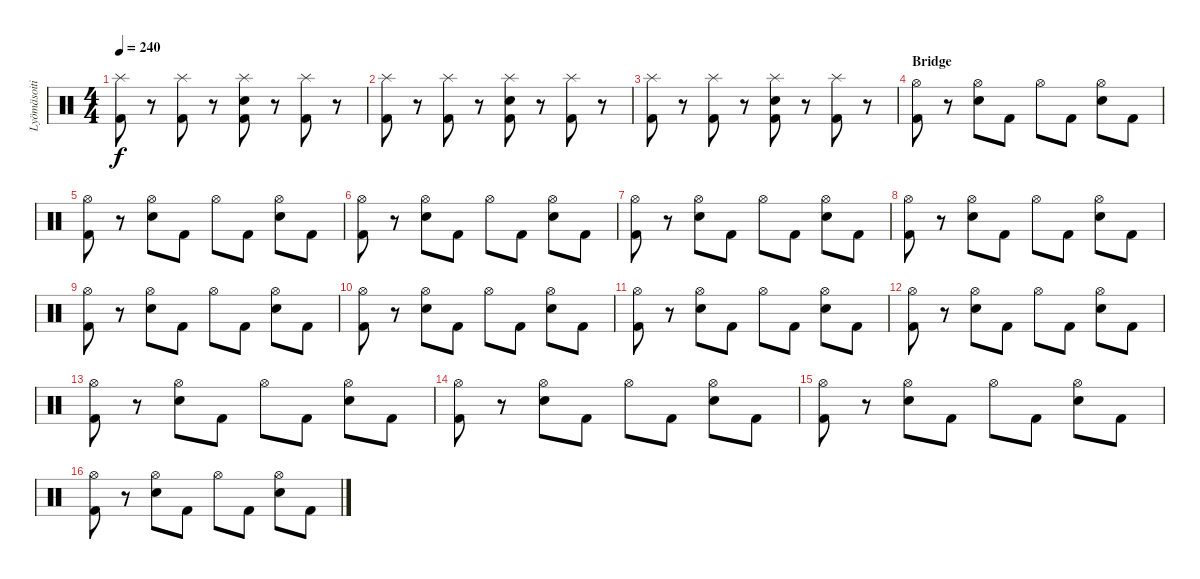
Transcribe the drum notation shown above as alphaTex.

\track ("Lyömäsoitin" "Lyömäsoiti") {instrument percussion}
\staff {score}
\articulation defaults
\ts (4 4)
\tempo 240
\clef neutral
\ks c
("Splash (hit)" "Kick (hit) 2").8{dy f} r.8 ("Splash (hit)" "Kick (hit) 2").8 r.8 ("Splash (hit)" "Snare (hit) 2" "Kick (hit) 2").8 r.8 ("Splash (hit)" "Kick (hit) 2").8 r.8 |
("Splash (hit)" "Kick (hit) 2").8 r.8 ("Splash (hit)" "Kick (hit) 2").8 r.8 ("Splash (hit)" "Snare (hit) 2" "Kick (hit) 2").8 r.8 ("Splash (hit)" "Kick (hit) 2").8 r.8 |
("Splash (hit)" "Kick (hit) 2").8 r.8 ("Splash (hit)" "Kick (hit) 2").8 r.8 ("Splash (hit)" "Snare (hit) 2" "Kick (hit) 2").8 r.8 ("Splash (hit)" "Kick (hit) 2").8 r.8 |
\section ("" "Bridge")
("Hi-Hat (open)" "Kick (hit) 2").8 r.8 ("Hi-Hat (open)" "Snare (hit) 2").8 "Kick (hit) 2".8 "Hi-Hat (open)".8 "Kick (hit) 2".8 ("Hi-Hat (open)" "Snare (hit) 2").8 "Kick (hit) 2".8 |
("Hi-Hat (open)" "Kick (hit) 2").8 r.8 ("Hi-Hat (open)" "Snare (hit) 2").8 "Kick (hit) 2".8 "Hi-Hat (open)".8 "Kick (hit) 2".8 ("Hi-Hat (open)" "Snare (hit) 2").8 "Kick (hit) 2".8 |
("Hi-Hat (open)" "Kick (hit) 2").8 r.8 ("Hi-Hat (open)" "Snare (hit) 2").8 "Kick (hit) 2".8 "Hi-Hat (open)".8 "Kick (hit) 2".8 ("Hi-Hat (open)" "Snare (hit) 2").8 "Kick (hit) 2".8 |
("Hi-Hat (open)" "Kick (hit) 2").8 r.8 ("Hi-Hat (open)" "Snare (hit) 2").8 "Kick (hit) 2".8 "Hi-Hat (open)".8 "Kick (hit) 2".8 ("Hi-Hat (open)" "Snare (hit) 2").8 "Kick (hit) 2".8 |
("Hi-Hat (open)" "Kick (hit) 2").8 r.8 ("Hi-Hat (open)" "Snare (hit) 2").8 "Kick (hit) 2".8 "Hi-Hat (open)".8 "Kick (hit) 2".8 ("Hi-Hat (open)" "Snare (hit) 2").8 "Kick (hit) 2".8 |
("Hi-Hat (open)" "Kick (hit) 2").8 r.8 ("Hi-Hat (open)" "Snare (hit) 2").8 "Kick (hit) 2".8 "Hi-Hat (open)".8 "Kick (hit) 2".8 ("Hi-Hat (open)" "Snare (hit) 2").8 "Kick (hit) 2".8 |
("Hi-Hat (open)" "Kick (hit) 2").8 r.8 ("Hi-Hat (open)" "Snare (hit) 2").8 "Kick (hit) 2".8 "Hi-Hat (open)".8 "Kick (hit) 2".8 ("Hi-Hat (open)" "Snare (hit) 2").8 "Kick (hit) 2".8 |
("Hi-Hat (open)" "Kick (hit) 2").8 r.8 ("Hi-Hat (open)" "Snare (hit) 2").8 "Kick (hit) 2".8 "Hi-Hat (open)".8 "Kick (hit) 2".8 ("Hi-Hat (open)" "Snare (hit) 2").8 "Kick (hit) 2".8 |
("Hi-Hat (open)" "Kick (hit) 2").8 r.8 ("Hi-Hat (open)" "Snare (hit) 2").8 "Kick (hit) 2".8 "Hi-Hat (open)".8 "Kick (hit) 2".8 ("Hi-Hat (open)" "Snare (hit) 2").8 "Kick (hit) 2".8 |
("Hi-Hat (open)" "Kick (hit) 2").8 r.8 ("Hi-Hat (open)" "Snare (hit) 2").8 "Kick (hit) 2".8 "Hi-Hat (open)".8 "Kick (hit) 2".8 ("Hi-Hat (open)" "Snare (hit) 2").8 "Kick (hit) 2".8 |
("Hi-Hat (open)" "Kick (hit) 2").8 r.8 ("Hi-Hat (open)" "Snare (hit) 2").8 "Kick (hit) 2".8 "Hi-Hat (open)".8 "Kick (hit) 2".8 ("Hi-Hat (open)" "Snare (hit) 2").8 "Kick (hit) 2".8 |
("Hi-Hat (open)" "Kick (hit) 2").8 r.8 ("Hi-Hat (open)" "Snare (hit) 2").8 "Kick (hit) 2".8 "Hi-Hat (open)".8 "Kick (hit) 2".8 ("Hi-Hat (open)" "Snare (hit) 2").8 "Kick (hit) 2".8 |
("Hi-Hat (open)" "Kick (hit) 2").8 r.8 ("Hi-Hat (open)" "Snare (hit) 2").8 "Kick (hit) 2".8 "Hi-Hat (open)".8 "Kick (hit) 2".8 ("Hi-Hat (open)" "Snare (hit) 2").8 "Kick (hit) 2".8
